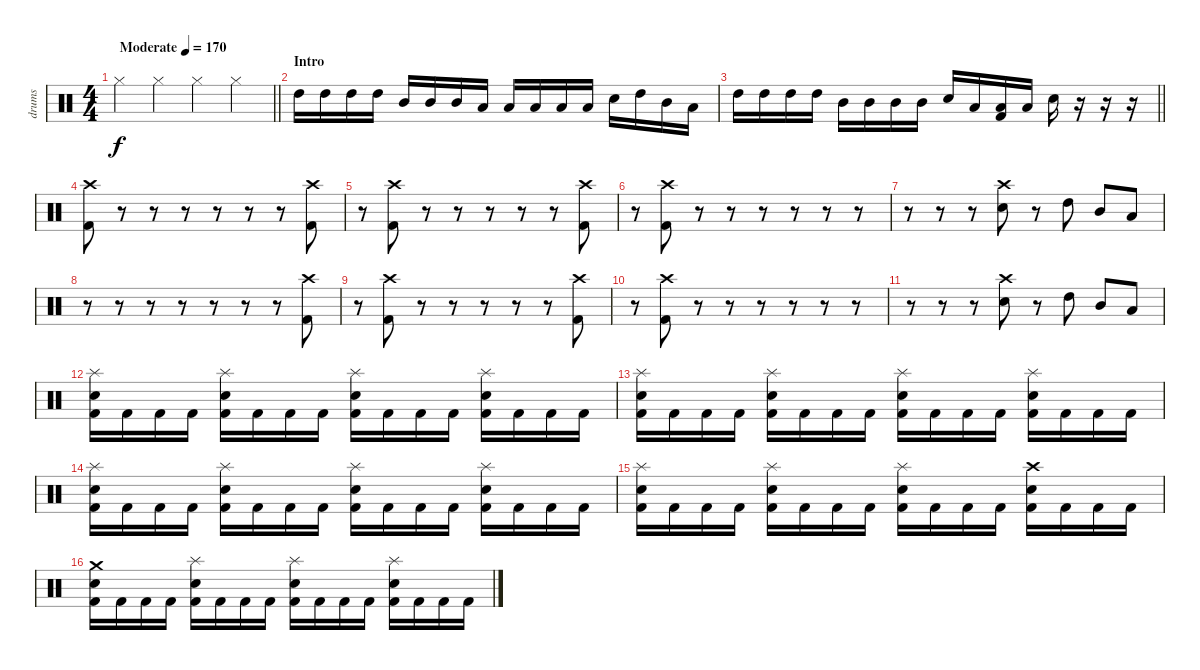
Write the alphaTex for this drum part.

\track ("drums" "drums") {instrument percussion}
\staff {score}
\articulation defaults
\ts (4 4)
\tempo (170 "Moderate")
\clef neutral
\barLineRight lightlight
\ks c "Hi-Hat (closed)".4{dy f} "Hi-Hat (closed)".4 "Hi-Hat (closed)".4 "Hi-Hat (closed)".4
|
\section ("" "Intro")
"High Tom (hit)".16 "High Tom (hit)".16 "High Tom (hit)".16 "High Tom (hit)".16 "Mid Tom (hit)".16 "Mid Tom (hit)".16 "Mid Tom (hit)".16 "Low Tom (hit)".16 "Low Tom (hit)".16 "Low Tom (hit)".16 "Low Tom (hit)".16 "Low Tom (hit)".16 "Snare (hit) 2".16 "High Tom (hit)".16 "Mid Tom (hit)".16 "Low Tom (hit)".16 |
\barLineRight lightlight "High Tom (hit)".16 "High Tom (hit)".16 "High Tom (hit)".16 "High Tom (hit)".16 "Mid Tom (hit)".16 "Mid Tom (hit)".16 "Mid Tom (hit)".16 "Mid Tom (hit)".16 "Snare (hit) 2".16 "Low Tom (hit)".16
("Low Tom (hit)" "Kick (hit) 2").16 "Low Tom (hit)".16 "Snare (hit) 2".16 r.16 r.16 r.16 |
("Crash high (hit)" "Kick (hit) 2").8 r.8 r.8 r.8 r.8 r.8 r.8 ("Crash high (hit)" "Kick (hit) 2").8 |
r.8 ("Crash high (hit)" "Kick (hit) 2").8 r.8 r.8 r.8 r.8 r.8 ("Crash high (hit)" "Kick (hit) 2").8 |
r.8 ("Crash high (hit)" "Kick (hit) 2").8 r.8 r.8 r.8 r.8 r.8 r.8 |
r.8 r.8 r.8 ("Crash high (hit)" "Snare (hit) 2").8 r.8 "High Tom (hit)".8 "Mid Tom (hit)".8 "Low Tom (hit)".8 |
r.8 r.8 r.8 r.8 r.8 r.8 r.8 ("Crash high (hit)" "Kick (hit) 2").8 |
r.8 ("Crash high (hit)" "Kick (hit) 2").8 r.8 r.8 r.8 r.8 r.8 ("Crash high (hit)" "Kick (hit) 2").8 |
r.8 ("Crash high (hit)" "Kick (hit) 2").8 r.8 r.8 r.8 r.8 r.8 r.8 |
r.8 r.8 r.8 ("Crash high (hit)" "Snare (hit) 2").8 r.8 "High Tom (hit)".8 "Mid Tom (hit)".8 "Low Tom (hit)".8 |
("Splash (hit)" "Snare (hit) 2" "Kick (hit) 2").16 "Kick (hit) 2".16 "Kick (hit) 2".16 "Kick (hit) 2".16 ("Splash (hit)" "Snare (hit) 2" "Kick (hit) 2").16 "Kick (hit) 2".16 "Kick (hit) 2".16 "Kick (hit) 2".16 ("Splash (hit)" "Snare (hit) 2" "Kick (hit) 2").16 "Kick (hit) 2".16 "Kick (hit) 2".16 "Kick (hit) 2".16 ("Splash (hit)" "Snare (hit) 2" "Kick (hit) 2").16 "Kick (hit) 2".16 "Kick (hit) 2".16 "Kick (hit) 2".16 |
("Splash (hit)" "Snare (hit) 2" "Kick (hit) 2").16 "Kick (hit) 2".16 "Kick (hit) 2".16 "Kick (hit) 2".16 ("Splash (hit)" "Snare (hit) 2" "Kick (hit) 2").16 "Kick (hit) 2".16 "Kick (hit) 2".16 "Kick (hit) 2".16 ("Splash (hit)" "Snare (hit) 2" "Kick (hit) 2").16 "Kick (hit) 2".16 "Kick (hit) 2".16 "Kick (hit) 2".16 ("Splash (hit)" "Snare (hit) 2" "Kick (hit) 2").16 "Kick (hit) 2".16 "Kick (hit) 2".16 "Kick (hit) 2".16 |
("Splash (hit)" "Snare (hit) 2" "Kick (hit) 2").16 "Kick (hit) 2".16 "Kick (hit) 2".16 "Kick (hit) 2".16 ("Splash (hit)" "Snare (hit) 2" "Kick (hit) 2").16 "Kick (hit) 2".16 "Kick (hit) 2".16 "Kick (hit) 2".16 ("Splash (hit)" "Snare (hit) 2" "Kick (hit) 2").16 "Kick (hit) 2".16 "Kick (hit) 2".16 "Kick (hit) 2".16 ("Splash (hit)" "Snare (hit) 2" "Kick (hit) 2").16 "Kick (hit) 2".16 "Kick (hit) 2".16 "Kick (hit) 2".16 |
("Splash (hit)" "Snare (hit) 2" "Kick (hit) 2").16 "Kick (hit) 2".16 "Kick (hit) 2".16 "Kick (hit) 2".16 ("Splash (hit)" "Snare (hit) 2" "Kick (hit) 2").16 "Kick (hit) 2".16 "Kick (hit) 2".16 "Kick (hit) 2".16 ("Splash (hit)" "Snare (hit) 2" "Kick (hit) 2").16 "Kick (hit) 2".16 "Kick (hit) 2".16 "Kick (hit) 2".16 ("Crash high (hit)" "Snare (hit) 2" "Kick (hit) 2").16 "Kick (hit) 2".16 "Kick (hit) 2".16 "Kick (hit) 2".16 |
("Crash medium (hit)" "Snare (hit) 2" "Kick (hit) 2").16 "Kick (hit) 2".16 "Kick (hit) 2".16 "Kick (hit) 2".16 ("Splash (hit)" "Snare (hit) 2" "Kick (hit) 2").16 "Kick (hit) 2".16 "Kick (hit) 2".16 "Kick (hit) 2".16 ("Splash (hit)" "Snare (hit) 2" "Kick (hit) 2").16 "Kick (hit) 2".16 "Kick (hit) 2".16 "Kick (hit) 2".16 ("Splash (hit)" "Snare (hit) 2" "Kick (hit) 2").16 "Kick (hit) 2".16 "Kick (hit) 2".16 "Kick (hit) 2".16
